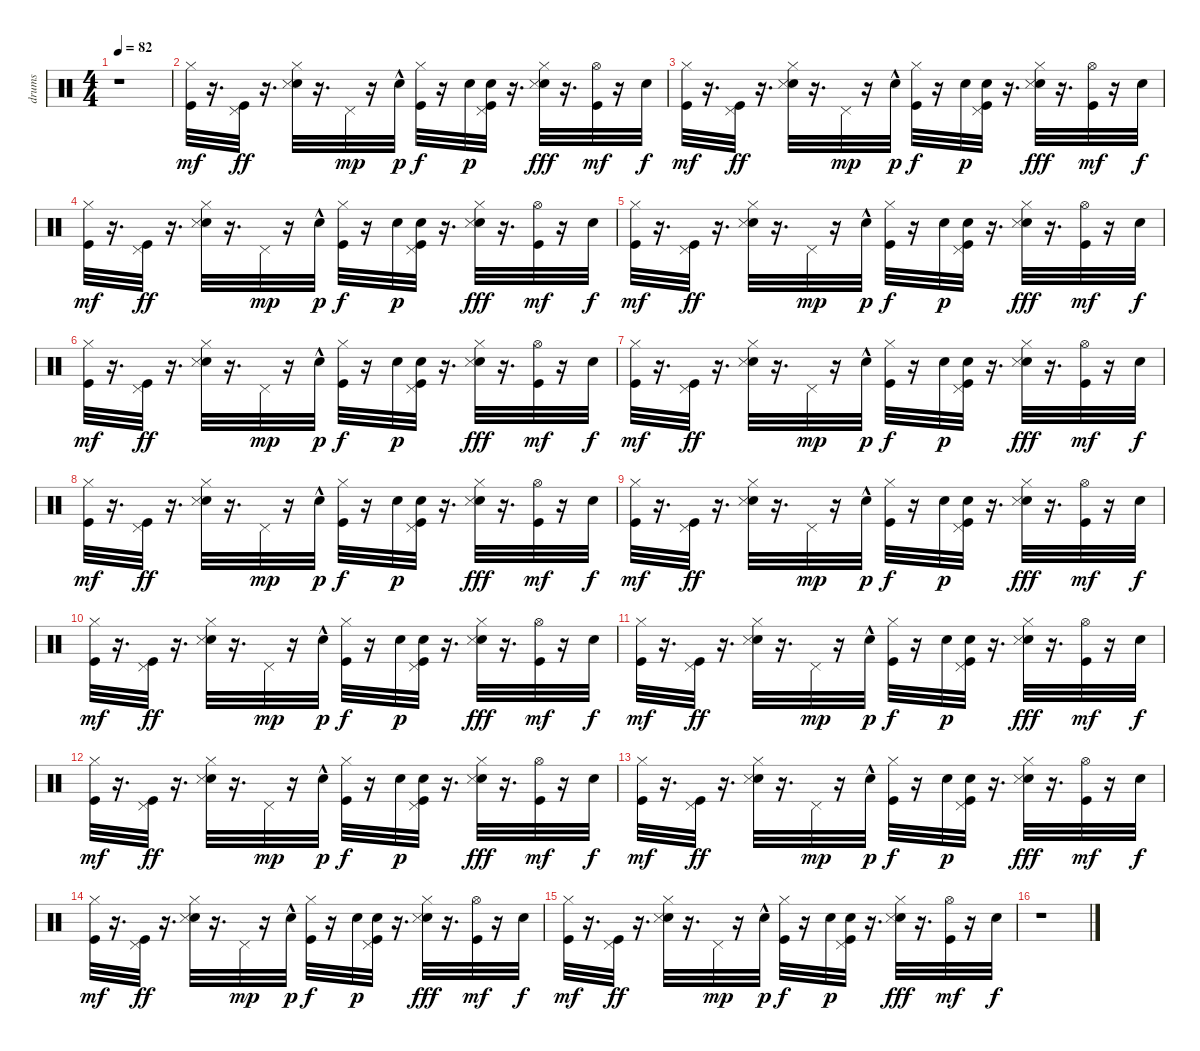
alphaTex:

\track ("drums" "drums") {instrument percussion}
\staff {score}
\articulation defaults
\ts (4 4)
\tempo 82
\clef neutral
\ks c
r.1{dy f} |
("Hi-Hat (closed)" "Kick (hit)").32{dy mf} r.16{d} ("Pedal Hi-Hat (hit)" "Kick (hit)").32{dy ff} r.16{d} ("Electric Snare (hit)" "Hi-Hat (closed)" "Snare (side stick) 3").32 r.16{d} "Pedal Hi-Hat (hit)".32{dy mp} r.16 "Electric Snare (hit)"{hac}.32{dy p} ("Hi-Hat (closed)" "Kick (hit)").32{dy f} r.16 "Electric Snare (hit)".32{dy p} ("Electric Snare (hit)" "Pedal Hi-Hat (hit)" "Kick (hit)").32 r.16{d} ("Electric Snare (hit)" "Hi-Hat (closed)" "Snare (side stick) 3").32{dy fff} r.16{d} ("Hi-Hat (open)" "Kick (hit)").32{dy mf} r.16 "Electric Snare (hit)".32{dy f} |
("Hi-Hat (closed)" "Kick (hit)").32{dy mf} r.16{d} ("Pedal Hi-Hat (hit)" "Kick (hit)").32{dy ff} r.16{d} ("Electric Snare (hit)" "Hi-Hat (closed)" "Snare (side stick) 3").32 r.16{d} "Pedal Hi-Hat (hit)".32{dy mp} r.16 "Electric Snare (hit)"{hac}.32{dy p} ("Hi-Hat (closed)" "Kick (hit)").32{dy f} r.16 "Electric Snare (hit)".32{dy p} ("Electric Snare (hit)" "Pedal Hi-Hat (hit)" "Kick (hit)").32 r.16{d} ("Electric Snare (hit)" "Hi-Hat (closed)" "Snare (side stick) 3").32{dy fff} r.16{d} ("Hi-Hat (open)" "Kick (hit)").32{dy mf} r.16 "Electric Snare (hit)".32{dy f} |
("Hi-Hat (closed)" "Kick (hit)").32{dy mf} r.16{d} ("Pedal Hi-Hat (hit)" "Kick (hit)").32{dy ff} r.16{d} ("Electric Snare (hit)" "Hi-Hat (closed)" "Snare (side stick) 3").32 r.16{d} "Pedal Hi-Hat (hit)".32{dy mp} r.16 "Electric Snare (hit)"{hac}.32{dy p} ("Hi-Hat (closed)" "Kick (hit)").32{dy f} r.16 "Electric Snare (hit)".32{dy p} ("Electric Snare (hit)" "Pedal Hi-Hat (hit)" "Kick (hit)").32 r.16{d} ("Electric Snare (hit)" "Hi-Hat (closed)" "Snare (side stick) 3").32{dy fff} r.16{d} ("Hi-Hat (open)" "Kick (hit)").32{dy mf} r.16 "Electric Snare (hit)".32{dy f} |
("Hi-Hat (closed)" "Kick (hit)").32{dy mf} r.16{d} ("Pedal Hi-Hat (hit)" "Kick (hit)").32{dy ff} r.16{d} ("Electric Snare (hit)" "Hi-Hat (closed)" "Snare (side stick) 3").32 r.16{d} "Pedal Hi-Hat (hit)".32{dy mp} r.16 "Electric Snare (hit)"{hac}.32{dy p} ("Hi-Hat (closed)" "Kick (hit)").32{dy f} r.16 "Electric Snare (hit)".32{dy p} ("Electric Snare (hit)" "Pedal Hi-Hat (hit)" "Kick (hit)").32 r.16{d} ("Electric Snare (hit)" "Hi-Hat (closed)" "Snare (side stick) 3").32{dy fff} r.16{d} ("Hi-Hat (open)" "Kick (hit)").32{dy mf} r.16 "Electric Snare (hit)".32{dy f} |
("Hi-Hat (closed)" "Kick (hit)").32{dy mf} r.16{d} ("Pedal Hi-Hat (hit)" "Kick (hit)").32{dy ff} r.16{d} ("Electric Snare (hit)" "Hi-Hat (closed)" "Snare (side stick) 3").32 r.16{d} "Pedal Hi-Hat (hit)".32{dy mp} r.16 "Electric Snare (hit)"{hac}.32{dy p} ("Hi-Hat (closed)" "Kick (hit)").32{dy f} r.16 "Electric Snare (hit)".32{dy p} ("Electric Snare (hit)" "Pedal Hi-Hat (hit)" "Kick (hit)").32 r.16{d} ("Electric Snare (hit)" "Hi-Hat (closed)" "Snare (side stick) 3").32{dy fff} r.16{d} ("Hi-Hat (open)" "Kick (hit)").32{dy mf} r.16 "Electric Snare (hit)".32{dy f} |
("Hi-Hat (closed)" "Kick (hit)").32{dy mf} r.16{d} ("Pedal Hi-Hat (hit)" "Kick (hit)").32{dy ff} r.16{d} ("Electric Snare (hit)" "Hi-Hat (closed)" "Snare (side stick) 3").32 r.16{d} "Pedal Hi-Hat (hit)".32{dy mp} r.16 "Electric Snare (hit)"{hac}.32{dy p} ("Hi-Hat (closed)" "Kick (hit)").32{dy f} r.16 "Electric Snare (hit)".32{dy p} ("Electric Snare (hit)" "Pedal Hi-Hat (hit)" "Kick (hit)").32 r.16{d} ("Electric Snare (hit)" "Hi-Hat (closed)" "Snare (side stick) 3").32{dy fff} r.16{d} ("Hi-Hat (open)" "Kick (hit)").32{dy mf} r.16 "Electric Snare (hit)".32{dy f} |
("Hi-Hat (closed)" "Kick (hit)").32{dy mf} r.16{d} ("Pedal Hi-Hat (hit)" "Kick (hit)").32{dy ff} r.16{d} ("Electric Snare (hit)" "Hi-Hat (closed)" "Snare (side stick) 3").32 r.16{d} "Pedal Hi-Hat (hit)".32{dy mp} r.16 "Electric Snare (hit)"{hac}.32{dy p} ("Hi-Hat (closed)" "Kick (hit)").32{dy f} r.16 "Electric Snare (hit)".32{dy p} ("Electric Snare (hit)" "Pedal Hi-Hat (hit)" "Kick (hit)").32 r.16{d} ("Electric Snare (hit)" "Hi-Hat (closed)" "Snare (side stick) 3").32{dy fff} r.16{d} ("Hi-Hat (open)" "Kick (hit)").32{dy mf} r.16 "Electric Snare (hit)".32{dy f} |
("Hi-Hat (closed)" "Kick (hit)").32{dy mf} r.16{d} ("Pedal Hi-Hat (hit)" "Kick (hit)").32{dy ff} r.16{d} ("Electric Snare (hit)" "Hi-Hat (closed)" "Snare (side stick) 3").32 r.16{d} "Pedal Hi-Hat (hit)".32{dy mp} r.16 "Electric Snare (hit)"{hac}.32{dy p} ("Hi-Hat (closed)" "Kick (hit)").32{dy f} r.16 "Electric Snare (hit)".32{dy p} ("Electric Snare (hit)" "Pedal Hi-Hat (hit)" "Kick (hit)").32 r.16{d} ("Electric Snare (hit)" "Hi-Hat (closed)" "Snare (side stick) 3").32{dy fff} r.16{d} ("Hi-Hat (open)" "Kick (hit)").32{dy mf} r.16 "Electric Snare (hit)".32{dy f} |
("Hi-Hat (closed)" "Kick (hit)").32{dy mf} r.16{d} ("Pedal Hi-Hat (hit)" "Kick (hit)").32{dy ff} r.16{d} ("Electric Snare (hit)" "Hi-Hat (closed)" "Snare (side stick) 3").32 r.16{d} "Pedal Hi-Hat (hit)".32{dy mp} r.16 "Electric Snare (hit)"{hac}.32{dy p} ("Hi-Hat (closed)" "Kick (hit)").32{dy f} r.16 "Electric Snare (hit)".32{dy p} ("Electric Snare (hit)" "Pedal Hi-Hat (hit)" "Kick (hit)").32 r.16{d} ("Electric Snare (hit)" "Hi-Hat (closed)" "Snare (side stick) 3").32{dy fff} r.16{d} ("Hi-Hat (open)" "Kick (hit)").32{dy mf} r.16 "Electric Snare (hit)".32{dy f} |
("Hi-Hat (closed)" "Kick (hit)").32{dy mf} r.16{d} ("Pedal Hi-Hat (hit)" "Kick (hit)").32{dy ff} r.16{d} ("Electric Snare (hit)" "Hi-Hat (closed)" "Snare (side stick) 3").32 r.16{d} "Pedal Hi-Hat (hit)".32{dy mp} r.16 "Electric Snare (hit)"{hac}.32{dy p} ("Hi-Hat (closed)" "Kick (hit)").32{dy f} r.16 "Electric Snare (hit)".32{dy p} ("Electric Snare (hit)" "Pedal Hi-Hat (hit)" "Kick (hit)").32 r.16{d} ("Electric Snare (hit)" "Hi-Hat (closed)" "Snare (side stick) 3").32{dy fff} r.16{d} ("Hi-Hat (open)" "Kick (hit)").32{dy mf} r.16 "Electric Snare (hit)".32{dy f} |
("Hi-Hat (closed)" "Kick (hit)").32{dy mf} r.16{d} ("Pedal Hi-Hat (hit)" "Kick (hit)").32{dy ff} r.16{d} ("Electric Snare (hit)" "Hi-Hat (closed)" "Snare (side stick) 3").32 r.16{d} "Pedal Hi-Hat (hit)".32{dy mp} r.16 "Electric Snare (hit)"{hac}.32{dy p} ("Hi-Hat (closed)" "Kick (hit)").32{dy f} r.16 "Electric Snare (hit)".32{dy p} ("Electric Snare (hit)" "Pedal Hi-Hat (hit)" "Kick (hit)").32 r.16{d} ("Electric Snare (hit)" "Hi-Hat (closed)" "Snare (side stick) 3").32{dy fff} r.16{d} ("Hi-Hat (open)" "Kick (hit)").32{dy mf} r.16 "Electric Snare (hit)".32{dy f} |
("Hi-Hat (closed)" "Kick (hit)").32{dy mf} r.16{d} ("Pedal Hi-Hat (hit)" "Kick (hit)").32{dy ff} r.16{d} ("Electric Snare (hit)" "Hi-Hat (closed)" "Snare (side stick) 3").32 r.16{d} "Pedal Hi-Hat (hit)".32{dy mp} r.16 "Electric Snare (hit)"{hac}.32{dy p} ("Hi-Hat (closed)" "Kick (hit)").32{dy f} r.16 "Electric Snare (hit)".32{dy p} ("Electric Snare (hit)" "Pedal Hi-Hat (hit)" "Kick (hit)").32 r.16{d} ("Electric Snare (hit)" "Hi-Hat (closed)" "Snare (side stick) 3").32{dy fff} r.16{d} ("Hi-Hat (open)" "Kick (hit)").32{dy mf} r.16 "Electric Snare (hit)".32{dy f} |
("Hi-Hat (closed)" "Kick (hit)").32{dy mf} r.16{d} ("Pedal Hi-Hat (hit)" "Kick (hit)").32{dy ff} r.16{d} ("Electric Snare (hit)" "Hi-Hat (closed)" "Snare (side stick) 3").32 r.16{d} "Pedal Hi-Hat (hit)".32{dy mp} r.16 "Electric Snare (hit)"{hac}.32{dy p} ("Hi-Hat (closed)" "Kick (hit)").32{dy f} r.16 "Electric Snare (hit)".32{dy p} ("Electric Snare (hit)" "Pedal Hi-Hat (hit)" "Kick (hit)").32 r.16{d} ("Electric Snare (hit)" "Hi-Hat (closed)" "Snare (side stick) 3").32{dy fff} r.16{d} ("Hi-Hat (open)" "Kick (hit)").32{dy mf} r.16 "Electric Snare (hit)".32{dy f} |
("Hi-Hat (closed)" "Kick (hit)").32{dy mf} r.16{d} ("Pedal Hi-Hat (hit)" "Kick (hit)").32{dy ff} r.16{d} ("Electric Snare (hit)" "Hi-Hat (closed)" "Snare (side stick) 3").32 r.16{d} "Pedal Hi-Hat (hit)".32{dy mp} r.16 "Electric Snare (hit)"{hac}.32{dy p} ("Hi-Hat (closed)" "Kick (hit)").32{dy f} r.16 "Electric Snare (hit)".32{dy p} ("Electric Snare (hit)" "Pedal Hi-Hat (hit)" "Kick (hit)").32 r.16{d} ("Electric Snare (hit)" "Hi-Hat (closed)" "Snare (side stick) 3").32{dy fff} r.16{d} ("Hi-Hat (open)" "Kick (hit)").32{dy mf} r.16 "Electric Snare (hit)".32{dy f} |
r.1
